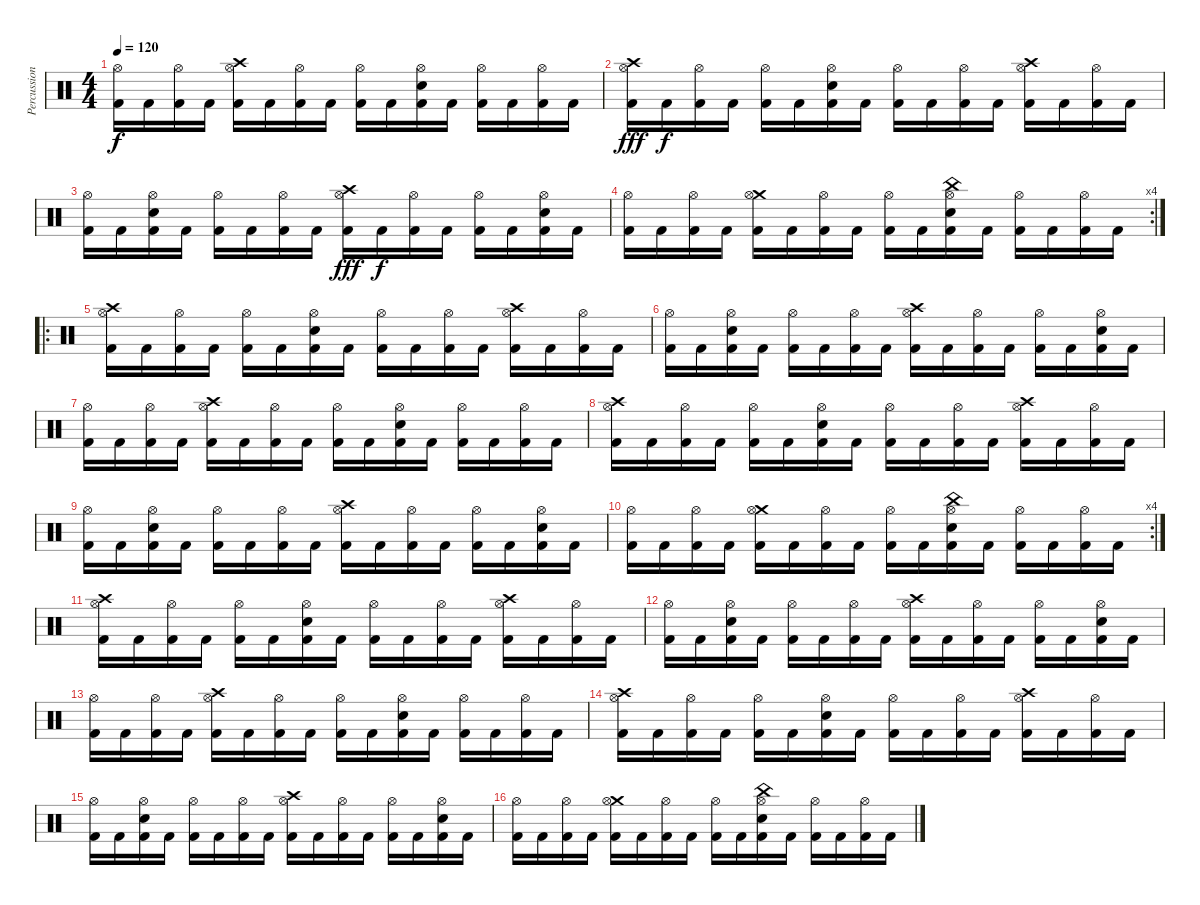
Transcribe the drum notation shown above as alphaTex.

\track ("Percussion" "Percussion") {instrument percussion}
\staff {score}
\articulation defaults
\ts (4 4)
\tempo 120
\clef neutral
\ks c
("Hi-Hat (open)" "Kick (hit) 2").16{dy f} "Kick (hit) 2".16 ("Hi-Hat (open)" "Kick (hit) 2").16 "Kick (hit) 2".16 ("Crash high (hit)" "Hi-Hat (open)" "Kick (hit) 2").16 "Kick (hit) 2".16 ("Hi-Hat (open)" "Kick (hit) 2").16 "Kick (hit) 2".16 ("Hi-Hat (open)" "Kick (hit) 2").16 "Kick (hit) 2".16 ("Hi-Hat (open)" "Snare (hit) 2" "Kick (hit) 2").16 "Kick (hit) 2".16 ("Hi-Hat (open)" "Kick (hit) 2").16 "Kick (hit) 2".16 ("Hi-Hat (open)" "Kick (hit) 2").16 "Kick (hit) 2".16 |
("Crash high (hit)" "Hi-Hat (open)" "Kick (hit) 2").16{dy fff} "Kick (hit) 2".16{dy f} ("Hi-Hat (open)" "Kick (hit) 2").16 "Kick (hit) 2".16 ("Hi-Hat (open)" "Kick (hit) 2").16 "Kick (hit) 2".16 ("Hi-Hat (open)" "Snare (hit) 2" "Kick (hit) 2").16 "Kick (hit) 2".16 ("Hi-Hat (open)" "Kick (hit) 2").16 "Kick (hit) 2".16 ("Hi-Hat (open)" "Kick (hit) 2").16 "Kick (hit) 2".16 ("Crash high (hit)" "Hi-Hat (open)" "Kick (hit) 2").16 "Kick (hit) 2".16 ("Hi-Hat (open)" "Kick (hit) 2").16 "Kick (hit) 2".16 |
("Hi-Hat (open)" "Kick (hit) 2").16 "Kick (hit) 2".16 ("Hi-Hat (open)" "Snare (hit) 2" "Kick (hit) 2").16 "Kick (hit) 2".16 ("Hi-Hat (open)" "Kick (hit) 2").16 "Kick (hit) 2".16 ("Hi-Hat (open)" "Kick (hit) 2").16 "Kick (hit) 2".16 ("Crash high (hit)" "Hi-Hat (open)" "Kick (hit) 2").16{dy fff} "Kick (hit) 2".16{dy f} ("Hi-Hat (open)" "Kick (hit) 2").16 "Kick (hit) 2".16 ("Hi-Hat (open)" "Kick (hit) 2").16 "Kick (hit) 2".16 ("Hi-Hat (open)" "Snare (hit) 2" "Kick (hit) 2").16 "Kick (hit) 2".16 |
\rc 4
("Hi-Hat (open)" "Kick (hit) 2").16 "Kick (hit) 2".16 ("Hi-Hat (open)" "Kick (hit) 2").16 "Kick (hit) 2".16 ("Crash medium (hit)" "Hi-Hat (open)" "Kick (hit) 2").16 "Kick (hit) 2".16 ("Hi-Hat (open)" "Kick (hit) 2").16 "Kick (hit) 2".16 ("Hi-Hat (open)" "Kick (hit) 2").16 "Kick (hit) 2".16 ("China (hit)" "Hi-Hat (open)" "Snare (hit) 2" "Kick (hit) 2").16 "Kick (hit) 2".16 ("Hi-Hat (open)" "Kick (hit) 2").16 "Kick (hit) 2".16 ("Hi-Hat (open)" "Kick (hit) 2").16 "Kick (hit) 2".16 |
\ro
("Crash high (hit)" "Hi-Hat (open)" "Kick (hit) 2").16 "Kick (hit) 2".16 ("Hi-Hat (open)" "Kick (hit) 2").16 "Kick (hit) 2".16 ("Hi-Hat (open)" "Kick (hit) 2").16 "Kick (hit) 2".16 ("Hi-Hat (open)" "Snare (hit) 2" "Kick (hit) 2").16 "Kick (hit) 2".16 ("Hi-Hat (open)" "Kick (hit) 2").16 "Kick (hit) 2".16 ("Hi-Hat (open)" "Kick (hit) 2").16 "Kick (hit) 2".16 ("Crash high (hit)" "Hi-Hat (open)" "Kick (hit) 2").16 "Kick (hit) 2".16 ("Hi-Hat (open)" "Kick (hit) 2").16 "Kick (hit) 2".16 |
("Hi-Hat (open)" "Kick (hit) 2").16 "Kick (hit) 2".16 ("Hi-Hat (open)" "Snare (hit) 2" "Kick (hit) 2").16 "Kick (hit) 2".16 ("Hi-Hat (open)" "Kick (hit) 2").16 "Kick (hit) 2".16 ("Hi-Hat (open)" "Kick (hit) 2").16 "Kick (hit) 2".16 ("Crash high (hit)" "Hi-Hat (open)" "Kick (hit) 2").16 "Kick (hit) 2".16 ("Hi-Hat (open)" "Kick (hit) 2").16 "Kick (hit) 2".16 ("Hi-Hat (open)" "Kick (hit) 2").16 "Kick (hit) 2".16 ("Hi-Hat (open)" "Snare (hit) 2" "Kick (hit) 2").16 "Kick (hit) 2".16 |
("Hi-Hat (open)" "Kick (hit) 2").16 "Kick (hit) 2".16 ("Hi-Hat (open)" "Kick (hit) 2").16 "Kick (hit) 2".16 ("Crash high (hit)" "Hi-Hat (open)" "Kick (hit) 2").16 "Kick (hit) 2".16 ("Hi-Hat (open)" "Kick (hit) 2").16 "Kick (hit) 2".16 ("Hi-Hat (open)" "Kick (hit) 2").16 "Kick (hit) 2".16 ("Hi-Hat (open)" "Snare (hit) 2" "Kick (hit) 2").16 "Kick (hit) 2".16 ("Hi-Hat (open)" "Kick (hit) 2").16 "Kick (hit) 2".16 ("Hi-Hat (open)" "Kick (hit) 2").16 "Kick (hit) 2".16 |
("Crash high (hit)" "Hi-Hat (open)" "Kick (hit) 2").16 "Kick (hit) 2".16 ("Hi-Hat (open)" "Kick (hit) 2").16 "Kick (hit) 2".16 ("Hi-Hat (open)" "Kick (hit) 2").16 "Kick (hit) 2".16 ("Hi-Hat (open)" "Snare (hit) 2" "Kick (hit) 2").16 "Kick (hit) 2".16 ("Hi-Hat (open)" "Kick (hit) 2").16 "Kick (hit) 2".16 ("Hi-Hat (open)" "Kick (hit) 2").16 "Kick (hit) 2".16 ("Crash high (hit)" "Hi-Hat (open)" "Kick (hit) 2").16 "Kick (hit) 2".16 ("Hi-Hat (open)" "Kick (hit) 2").16 "Kick (hit) 2".16 |
("Hi-Hat (open)" "Kick (hit) 2").16 "Kick (hit) 2".16 ("Hi-Hat (open)" "Snare (hit) 2" "Kick (hit) 2").16 "Kick (hit) 2".16 ("Hi-Hat (open)" "Kick (hit) 2").16 "Kick (hit) 2".16 ("Hi-Hat (open)" "Kick (hit) 2").16 "Kick (hit) 2".16 ("Crash high (hit)" "Hi-Hat (open)" "Kick (hit) 2").16 "Kick (hit) 2".16 ("Hi-Hat (open)" "Kick (hit) 2").16 "Kick (hit) 2".16 ("Hi-Hat (open)" "Kick (hit) 2").16 "Kick (hit) 2".16 ("Hi-Hat (open)" "Snare (hit) 2" "Kick (hit) 2").16 "Kick (hit) 2".16 |
\rc 4
("Hi-Hat (open)" "Kick (hit) 2").16 "Kick (hit) 2".16 ("Hi-Hat (open)" "Kick (hit) 2").16 "Kick (hit) 2".16 ("Crash medium (hit)" "Hi-Hat (open)" "Kick (hit) 2").16 "Kick (hit) 2".16 ("Hi-Hat (open)" "Kick (hit) 2").16 "Kick (hit) 2".16 ("Hi-Hat (open)" "Kick (hit) 2").16 "Kick (hit) 2".16 ("China (hit)" "Hi-Hat (open)" "Snare (hit) 2" "Kick (hit) 2").16 "Kick (hit) 2".16 ("Hi-Hat (open)" "Kick (hit) 2").16 "Kick (hit) 2".16 ("Hi-Hat (open)" "Kick (hit) 2").16 "Kick (hit) 2".16 |
("Crash high (hit)" "Hi-Hat (open)" "Kick (hit) 2").16 "Kick (hit) 2".16 ("Hi-Hat (open)" "Kick (hit) 2").16 "Kick (hit) 2".16 ("Hi-Hat (open)" "Kick (hit) 2").16 "Kick (hit) 2".16 ("Hi-Hat (open)" "Snare (hit) 2" "Kick (hit) 2").16 "Kick (hit) 2".16 ("Hi-Hat (open)" "Kick (hit) 2").16 "Kick (hit) 2".16 ("Hi-Hat (open)" "Kick (hit) 2").16 "Kick (hit) 2".16 ("Crash high (hit)" "Hi-Hat (open)" "Kick (hit) 2").16 "Kick (hit) 2".16 ("Hi-Hat (open)" "Kick (hit) 2").16 "Kick (hit) 2".16 |
("Hi-Hat (open)" "Kick (hit) 2").16 "Kick (hit) 2".16 ("Hi-Hat (open)" "Snare (hit) 2" "Kick (hit) 2").16 "Kick (hit) 2".16 ("Hi-Hat (open)" "Kick (hit) 2").16 "Kick (hit) 2".16 ("Hi-Hat (open)" "Kick (hit) 2").16 "Kick (hit) 2".16 ("Crash high (hit)" "Hi-Hat (open)" "Kick (hit) 2").16 "Kick (hit) 2".16 ("Hi-Hat (open)" "Kick (hit) 2").16 "Kick (hit) 2".16 ("Hi-Hat (open)" "Kick (hit) 2").16 "Kick (hit) 2".16 ("Hi-Hat (open)" "Snare (hit) 2" "Kick (hit) 2").16 "Kick (hit) 2".16 |
("Hi-Hat (open)" "Kick (hit) 2").16 "Kick (hit) 2".16 ("Hi-Hat (open)" "Kick (hit) 2").16 "Kick (hit) 2".16 ("Crash high (hit)" "Hi-Hat (open)" "Kick (hit) 2").16 "Kick (hit) 2".16 ("Hi-Hat (open)" "Kick (hit) 2").16 "Kick (hit) 2".16 ("Hi-Hat (open)" "Kick (hit) 2").16 "Kick (hit) 2".16 ("Hi-Hat (open)" "Snare (hit) 2" "Kick (hit) 2").16 "Kick (hit) 2".16 ("Hi-Hat (open)" "Kick (hit) 2").16 "Kick (hit) 2".16 ("Hi-Hat (open)" "Kick (hit) 2").16 "Kick (hit) 2".16 |
("Crash high (hit)" "Hi-Hat (open)" "Kick (hit) 2").16 "Kick (hit) 2".16 ("Hi-Hat (open)" "Kick (hit) 2").16 "Kick (hit) 2".16 ("Hi-Hat (open)" "Kick (hit) 2").16 "Kick (hit) 2".16 ("Hi-Hat (open)" "Snare (hit) 2" "Kick (hit) 2").16 "Kick (hit) 2".16 ("Hi-Hat (open)" "Kick (hit) 2").16 "Kick (hit) 2".16 ("Hi-Hat (open)" "Kick (hit) 2").16 "Kick (hit) 2".16 ("Crash high (hit)" "Hi-Hat (open)" "Kick (hit) 2").16 "Kick (hit) 2".16 ("Hi-Hat (open)" "Kick (hit) 2").16 "Kick (hit) 2".16 |
("Hi-Hat (open)" "Kick (hit) 2").16 "Kick (hit) 2".16 ("Hi-Hat (open)" "Snare (hit) 2" "Kick (hit) 2").16 "Kick (hit) 2".16 ("Hi-Hat (open)" "Kick (hit) 2").16 "Kick (hit) 2".16 ("Hi-Hat (open)" "Kick (hit) 2").16 "Kick (hit) 2".16 ("Crash high (hit)" "Hi-Hat (open)" "Kick (hit) 2").16 "Kick (hit) 2".16 ("Hi-Hat (open)" "Kick (hit) 2").16 "Kick (hit) 2".16 ("Hi-Hat (open)" "Kick (hit) 2").16 "Kick (hit) 2".16 ("Hi-Hat (open)" "Snare (hit) 2" "Kick (hit) 2").16 "Kick (hit) 2".16 |
("Hi-Hat (open)" "Kick (hit) 2").16 "Kick (hit) 2".16 ("Hi-Hat (open)" "Kick (hit) 2").16 "Kick (hit) 2".16 ("Crash medium (hit)" "Hi-Hat (open)" "Kick (hit) 2").16 "Kick (hit) 2".16 ("Hi-Hat (open)" "Kick (hit) 2").16 "Kick (hit) 2".16 ("Hi-Hat (open)" "Kick (hit) 2").16 "Kick (hit) 2".16 ("China (hit)" "Hi-Hat (open)" "Snare (hit) 2" "Kick (hit) 2").16 "Kick (hit) 2".16 ("Hi-Hat (open)" "Kick (hit) 2").16 "Kick (hit) 2".16 ("Hi-Hat (open)" "Kick (hit) 2").16 "Kick (hit) 2".16
